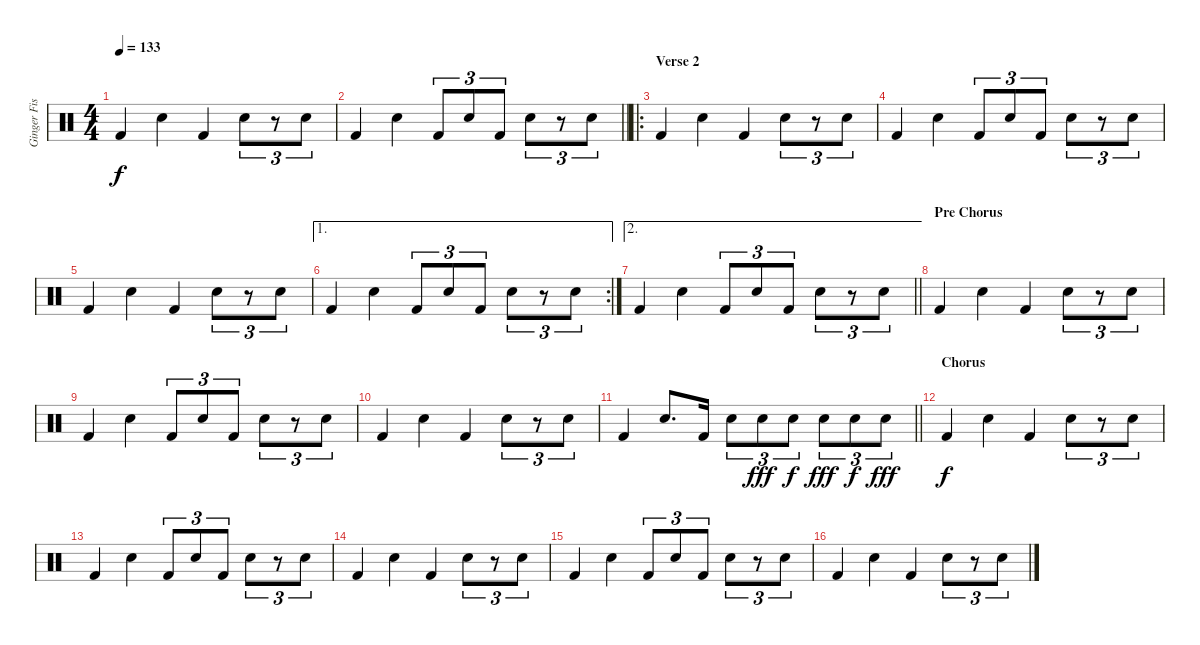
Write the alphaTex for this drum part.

\track ("Ginger Fish (Drums)" "Ginger Fis") {instrument percussion}
\staff {score}
\articulation defaults
\ts (4 4)
\tempo 133
\clef neutral
\ks c "Kick (hit) 2".4{dy f} "Snare (hit) 2".4 "Kick (hit) 2".4 "Snare (hit) 2".8{tu (3 2)}
r.8{tu (3 2)} "Snare (hit) 2".8{tu (3 2)} |
\barLineRight lightlight "Kick (hit) 2".4 "Snare (hit) 2".4 "Kick (hit) 2".8{tu (3 2)} "Snare (hit) 2".8{tu (3 2)} "Kick (hit) 2".8{tu (3 2)} "Snare (hit) 2".8{tu (3 2)}
r.8{tu (3 2)} "Snare (hit) 2".8{tu (3 2)} |
\ro
\section ("" "Verse 2")
"Kick (hit) 2".4 "Snare (hit) 2".4 "Kick (hit) 2".4 "Snare (hit) 2".8{tu (3 2)} r.8{tu (3 2)} "Snare (hit) 2".8{tu (3 2)} |
"Kick (hit) 2".4 "Snare (hit) 2".4 "Kick (hit) 2".8{tu (3 2)} "Snare (hit) 2".8{tu (3 2)} "Kick (hit) 2".8{tu (3 2)} "Snare (hit) 2".8{tu (3 2)} r.8{tu (3 2)} "Snare (hit) 2".8{tu (3 2)} |
"Kick (hit) 2".4 "Snare (hit) 2".4 "Kick (hit) 2".4 "Snare (hit) 2".8{tu (3 2)} r.8{tu (3 2)} "Snare (hit) 2".8{tu (3 2)} |
\ae 1
\rc 2 "Kick (hit) 2".4 "Snare (hit) 2".4 "Kick (hit) 2".8{tu (3 2)} "Snare (hit) 2".8{tu (3 2)} "Kick (hit) 2".8{tu (3 2)} "Snare (hit) 2".8{tu (3 2)}
r.8{tu (3 2)} "Snare (hit) 2".8{tu (3 2)} |
\ae 2
\barLineRight lightlight "Kick (hit) 2".4 "Snare (hit) 2".4 "Kick (hit) 2".8{tu (3 2)} "Snare (hit) 2".8{tu (3 2)} "Kick (hit) 2".8{tu (3 2)} "Snare (hit) 2".8{tu (3 2)}
r.8{tu (3 2)} "Snare (hit) 2".8{tu (3 2)} |
\section ("" "Pre Chorus")
"Kick (hit) 2".4 "Snare (hit) 2".4 "Kick (hit) 2".4 "Snare (hit) 2".8{tu (3 2)} r.8{tu (3 2)} "Snare (hit) 2".8{tu (3 2)} |
"Kick (hit) 2".4 "Snare (hit) 2".4 "Kick (hit) 2".8{tu (3 2)} "Snare (hit) 2".8{tu (3 2)} "Kick (hit) 2".8{tu (3 2)} "Snare (hit) 2".8{tu (3 2)} r.8{tu (3 2)} "Snare (hit) 2".8{tu (3 2)} |
"Kick (hit) 2".4 "Snare (hit) 2".4 "Kick (hit) 2".4 "Snare (hit) 2".8{tu (3 2)} r.8{tu (3 2)} "Snare (hit) 2".8{tu (3 2)} |
\barLineRight lightlight "Kick (hit) 2".4 "Snare (hit) 2".8{d} "Kick (hit) 2".16 "Snare (hit) 2".8{tu (3 2)} "Snare (hit) 2".8{tu (3 2) dy fff} "Snare (hit) 2".8{tu (3 2) dy f} "Snare (hit) 2".8{tu (3 2) dy fff} "Snare (hit) 2".8{tu (3 2) dy f} "Snare (hit) 2".8{tu (3 2) dy fff}
|
\section ("" "Chorus")
"Kick (hit) 2".4{dy f} "Snare (hit) 2".4 "Kick (hit) 2".4 "Snare (hit) 2".8{tu (3 2)} r.8{tu (3 2)} "Snare (hit) 2".8{tu (3 2)} |
"Kick (hit) 2".4 "Snare (hit) 2".4 "Kick (hit) 2".8{tu (3 2)} "Snare (hit) 2".8{tu (3 2)} "Kick (hit) 2".8{tu (3 2)} "Snare (hit) 2".8{tu (3 2)} r.8{tu (3 2)} "Snare (hit) 2".8{tu (3 2)} |
"Kick (hit) 2".4 "Snare (hit) 2".4 "Kick (hit) 2".4 "Snare (hit) 2".8{tu (3 2)} r.8{tu (3 2)} "Snare (hit) 2".8{tu (3 2)} |
"Kick (hit) 2".4 "Snare (hit) 2".4 "Kick (hit) 2".8{tu (3 2)} "Snare (hit) 2".8{tu (3 2)} "Kick (hit) 2".8{tu (3 2)} "Snare (hit) 2".8{tu (3 2)} r.8{tu (3 2)} "Snare (hit) 2".8{tu (3 2)} |
"Kick (hit) 2".4 "Snare (hit) 2".4 "Kick (hit) 2".4 "Snare (hit) 2".8{tu (3 2)} r.8{tu (3 2)} "Snare (hit) 2".8{tu (3 2)}
